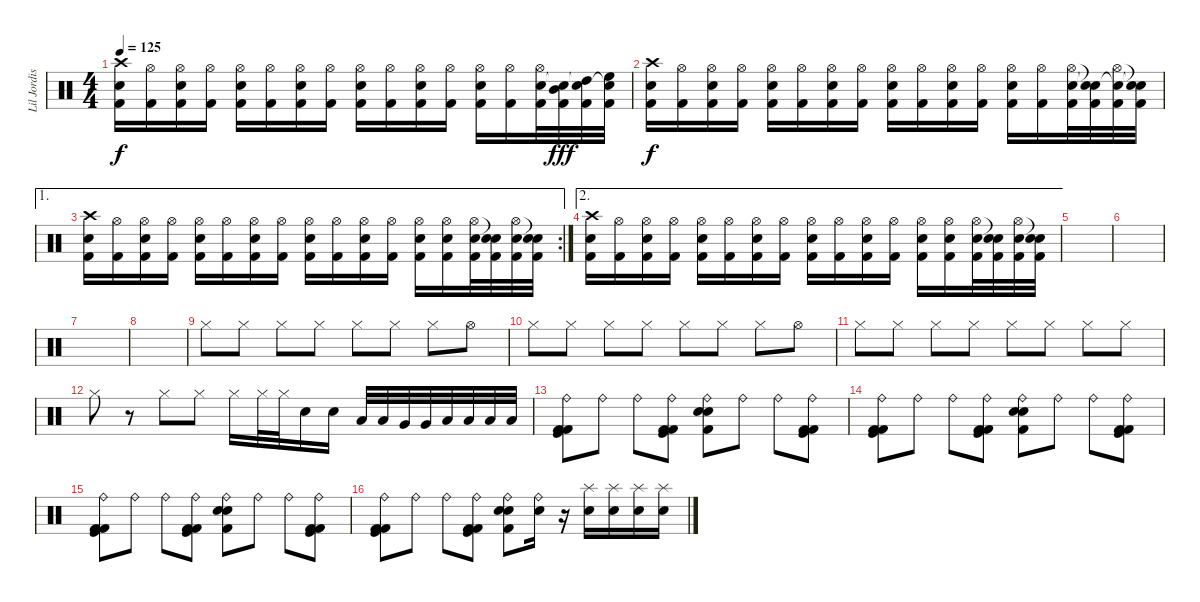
\track ("Lil Jordison" "Lil Jordis") {instrument percussion}
\staff {score}
\articulation defaults
\ts (4 4)
\tempo 125
\clef neutral
\ks c
("Crash high (hit)" "Electric Snare (hit)" "Kick (hit) 2").16{dy f} ("Hi-Hat (open)" "Kick (hit) 2").16 ("Hi-Hat (open)" "Electric Snare (hit)" "Kick (hit) 2").16 ("Hi-Hat (open)" "Kick (hit) 2").16 ("Hi-Hat (open)" "Electric Snare (hit)" "Kick (hit) 2").16 ("Hi-Hat (open)" "Kick (hit) 2").16 ("Hi-Hat (open)" "Electric Snare (hit)" "Kick (hit) 2").16 ("Hi-Hat (open)" "Kick (hit) 2").16 ("Hi-Hat (open)" "Electric Snare (hit)" "Kick (hit) 2").16 ("Hi-Hat (open)" "Kick (hit) 2").16 ("Hi-Hat (open)" "Electric Snare (hit)" "Kick (hit) 2").16 ("Hi-Hat (open)" "Kick (hit) 2").16 ("Hi-Hat (open)" "Electric Snare (hit)" "Kick (hit) 2").16 ("Hi-Hat (open)" "Kick (hit) 2").16 ("Hi-Hat (open)" "Electric Snare (hit)" "Kick (hit) 2").32 ("Mid Tom (hit)" "Snare (hit)"{t} "Kick (hit) 2").32{dy fff} ("High Tom (hit)" "Snare (hit)"{t} "Kick (hit) 2").32 ("High Floor Tom (hit)" "Snare (hit)"{t} "Kick (hit) 2").32 |
("Crash high (hit)" "Electric Snare (hit)" "Kick (hit) 2").16{dy f} ("Hi-Hat (open)" "Kick (hit) 2").16 ("Hi-Hat (open)" "Electric Snare (hit)" "Kick (hit) 2").16 ("Hi-Hat (open)" "Kick (hit) 2").16 ("Hi-Hat (open)" "Electric Snare (hit)" "Kick (hit) 2").16 ("Hi-Hat (open)" "Kick (hit) 2").16 ("Hi-Hat (open)" "Electric Snare (hit)" "Kick (hit) 2").16 ("Hi-Hat (open)" "Kick (hit) 2").16 ("Hi-Hat (open)" "Electric Snare (hit)" "Kick (hit) 2").16 ("Hi-Hat (open)" "Kick (hit) 2").16 ("Hi-Hat (open)" "Electric Snare (hit)" "Kick (hit) 2").16 ("Hi-Hat (open)" "Kick (hit) 2").16 ("Hi-Hat (open)" "Electric Snare (hit)" "Kick (hit) 2").16 ("Hi-Hat (open)" "Kick (hit) 2").16 ("Hi-Hat (open)" "Electric Snare (hit)" "Kick (hit) 2").32 ("Snare (hit)"{t} "Snare (hit)"{t} "Kick (hit) 2").32 ("Hi-Hat (open)" "Snare (hit)"{t} "Kick (hit) 2").32 ("Snare (hit)"{t} "Snare (hit)"{t} "Kick (hit) 2").32 |
\ae 1
\rc 2
("Crash high (hit)" "Electric Snare (hit)" "Kick (hit) 2").16 ("Hi-Hat (open)" "Kick (hit) 2").16 ("Hi-Hat (open)" "Electric Snare (hit)" "Kick (hit) 2").16 ("Hi-Hat (open)" "Kick (hit) 2").16 ("Hi-Hat (open)" "Electric Snare (hit)" "Kick (hit) 2").16 ("Hi-Hat (open)" "Kick (hit) 2").16 ("Hi-Hat (open)" "Electric Snare (hit)" "Kick (hit) 2").16 ("Hi-Hat (open)" "Kick (hit) 2").16 ("Hi-Hat (open)" "Electric Snare (hit)" "Kick (hit) 2").16 ("Hi-Hat (open)" "Kick (hit) 2").16 ("Hi-Hat (open)" "Electric Snare (hit)" "Kick (hit) 2").16 ("Hi-Hat (open)" "Kick (hit) 2").16 ("Hi-Hat (open)" "Electric Snare (hit)" "Kick (hit) 2").16 ("Hi-Hat (open)" "Electric Snare (hit)" "Kick (hit) 2").16 ("Hi-Hat (open)" "Electric Snare (hit)" "Kick (hit) 2").32 ("Snare (hit)"{t} "Electric Snare (hit)" "Kick (hit) 2").32 ("Hi-Hat (open)" "Electric Snare (hit)" "Kick (hit) 2").32 ("Snare (hit)"{t} "Electric Snare (hit)" "Kick (hit) 2").32 |
\ae 2
("Crash high (hit)" "Electric Snare (hit)" "Kick (hit) 2").16 ("Hi-Hat (open)" "Kick (hit) 2").16 ("Hi-Hat (open)" "Electric Snare (hit)" "Kick (hit) 2").16 ("Hi-Hat (open)" "Kick (hit) 2").16 ("Hi-Hat (open)" "Electric Snare (hit)" "Kick (hit) 2").16 ("Hi-Hat (open)" "Kick (hit) 2").16 ("Hi-Hat (open)" "Electric Snare (hit)" "Kick (hit) 2").16 ("Hi-Hat (open)" "Kick (hit) 2").16 ("Hi-Hat (open)" "Electric Snare (hit)" "Kick (hit) 2").16 ("Hi-Hat (open)" "Kick (hit) 2").16 ("Hi-Hat (open)" "Electric Snare (hit)" "Kick (hit) 2").16 ("Hi-Hat (open)" "Kick (hit) 2").16 ("Hi-Hat (open)" "Electric Snare (hit)" "Kick (hit) 2").16 ("Hi-Hat (open)" "Electric Snare (hit)" "Kick (hit) 2").16 ("Hi-Hat (open)" "Electric Snare (hit)" "Kick (hit) 2").32 ("Snare (hit)"{t} "Electric Snare (hit)" "Kick (hit) 2").32 ("Hi-Hat (open)" "Electric Snare (hit)" "Kick (hit) 2").32 ("Snare (hit)"{t} "Electric Snare (hit)" "Kick (hit) 2").32 |
|
|
|
|
"Hi-Hat (closed)".8 "Hi-Hat (closed)".8 "Hi-Hat (closed)".8 "Hi-Hat (closed)".8 "Hi-Hat (closed)".8 "Hi-Hat (closed)".8 "Hi-Hat (closed)".8 "Hi-Hat (open)".8 |
"Hi-Hat (closed)".8 "Hi-Hat (closed)".8 "Hi-Hat (closed)".8 "Hi-Hat (closed)".8 "Hi-Hat (closed)".8 "Hi-Hat (closed)".8 "Hi-Hat (closed)".8 "Hi-Hat (open)".8 |
"Hi-Hat (closed)".8 "Hi-Hat (closed)".8 "Hi-Hat (closed)".8 "Hi-Hat (closed)".8 "Hi-Hat (closed)".8 "Hi-Hat (closed)".8 "Hi-Hat (closed)".8 "Hi-Hat (closed)".8 |
"Hi-Hat (closed)".8 r.8 "Hi-Hat (closed)".8 "Hi-Hat (closed)".8 "Hi-Hat (closed)".16 "Hi-Hat (closed)".32 "Hi-Hat (closed)".32 "Electric Snare (hit)".16 "Electric Snare (hit)".16 "Low Tom (hit)".32 "Low Tom (hit)".32 "Very Low Tom (hit)".32 "Very Low Tom (hit)".32 "Low Floor Tom (hit)".32 "Low Floor Tom (hit)".32 "Low Floor Tom (hit)".32 "Low Floor Tom (hit)".32 |
("Ride (bell)" "Kick (hit)" "Kick (hit) 2" "Kick (hit) 2").8 "Ride (bell)".8 "Ride (bell)".8 ("Ride (bell)" "Kick (hit)" "Kick (hit) 2" "Kick (hit) 2").8 ("Ride (bell)" "Electric Snare (hit)" "Kick (hit) 2" "Electric Snare (hit)").8 "Ride (bell)".8 "Ride (bell)".8 ("Ride (bell)" "Kick (hit)" "Kick (hit) 2" "Kick (hit) 2").8 |
("Ride (bell)" "Kick (hit)" "Kick (hit) 2" "Kick (hit) 2").8 "Ride (bell)".8 "Ride (bell)".8 ("Ride (bell)" "Kick (hit)" "Kick (hit) 2" "Kick (hit) 2").8 ("Ride (bell)" "Electric Snare (hit)" "Kick (hit) 2" "Electric Snare (hit)").8 "Ride (bell)".8 "Ride (bell)".8 ("Ride (bell)" "Kick (hit)" "Kick (hit) 2" "Kick (hit) 2").8 |
("Ride (bell)" "Kick (hit)" "Kick (hit) 2" "Kick (hit) 2").8 "Ride (bell)".8 "Ride (bell)".8 ("Ride (bell)" "Kick (hit)" "Kick (hit) 2" "Kick (hit) 2").8 ("Ride (bell)" "Electric Snare (hit)" "Kick (hit) 2" "Electric Snare (hit)").8 "Ride (bell)".8 "Ride (bell)".8 ("Ride (bell)" "Kick (hit)" "Kick (hit) 2" "Kick (hit) 2").8 |
("Ride (bell)" "Kick (hit)" "Kick (hit) 2" "Kick (hit) 2").8 "Ride (bell)".8 "Ride (bell)".8 ("Ride (bell)" "Kick (hit)" "Kick (hit) 2" "Kick (hit) 2").8 ("Ride (bell)" "Electric Snare (hit)" "Kick (hit) 2" "Electric Snare (hit)").8 ("Ride (bell)" "Electric Snare (hit)").16 r.16 ("Splash (hit)" "Electric Snare (hit)").16 ("Splash (hit)" "Electric Snare (hit)").16 ("Splash (hit)" "Electric Snare (hit)").16 ("Splash (hit)" "Electric Snare (hit)").16
